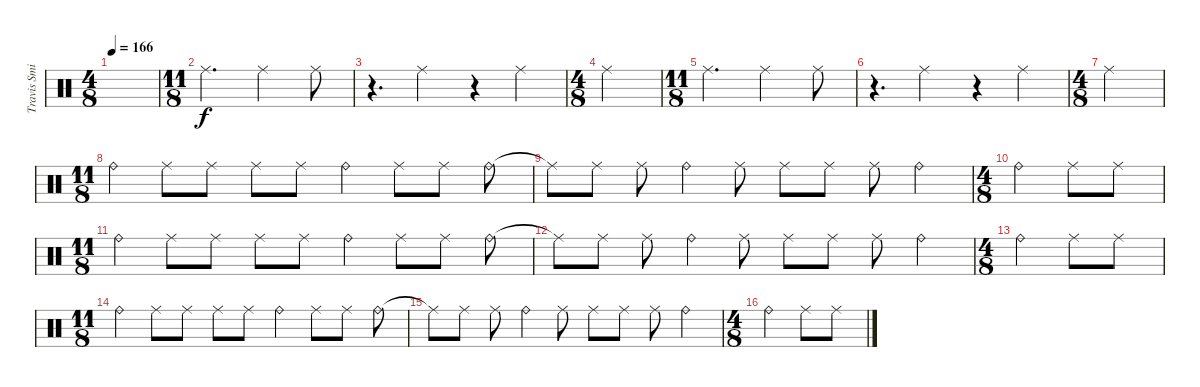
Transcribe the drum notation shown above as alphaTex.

\track ("Travis Smith" "Travis Smi") {instrument percussion}
\staff {score}
\articulation defaults
\ts (4 8)
\tempo 166
\clef neutral
\ks c
|
\ts (11 8)
"Ride (middle)".2{d} "Ride (middle)".2 "Ride (middle)".8 |
r.4{d} "Ride (middle)".2 r.4 "Ride (middle)".4 |
\ts (4 8)
"Ride (middle)".2 |
\ts (11 8)
"Ride (middle)".2{d} "Ride (middle)".2 "Ride (middle)".8 |
r.4{d} "Ride (middle)".2 r.4 "Ride (middle)".4 |
\ts (4 8)
"Ride (middle)".2 |
\ts (11 8)
"Ride (bell)".4 "Ride (middle)".8 "Ride (middle)".8 "Ride (middle)".8 "Ride (middle)".8 "Ride (bell)".4 "Ride (middle)".8 "Ride (middle)".8 "Ride (bell)".8 |
"Ride (middle)"{t}.8 "Ride (middle)".8 "Ride (middle)".8 "Ride (bell)".4 "Ride (middle)".8 "Ride (middle)".8 "Ride (middle)".8 "Ride (middle)".8 "Ride (bell)".4 |
\ts (4 8)
"Ride (bell)".4 "Ride (middle)".8 "Ride (middle)".8 |
\ts (11 8)
"Ride (bell)".4 "Ride (middle)".8 "Ride (middle)".8 "Ride (middle)".8 "Ride (middle)".8 "Ride (bell)".4 "Ride (middle)".8 "Ride (middle)".8 "Ride (bell)".8 |
"Ride (middle)"{t}.8 "Ride (middle)".8 "Ride (middle)".8 "Ride (bell)".4 "Ride (middle)".8 "Ride (middle)".8 "Ride (middle)".8 "Ride (middle)".8 "Ride (bell)".4 |
\ts (4 8)
"Ride (bell)".4 "Ride (middle)".8 "Ride (middle)".8 |
\ts (11 8)
"Ride (bell)".4 "Ride (middle)".8 "Ride (middle)".8 "Ride (middle)".8 "Ride (middle)".8 "Ride (bell)".4 "Ride (middle)".8 "Ride (middle)".8 "Ride (bell)".8 |
"Ride (middle)"{t}.8 "Ride (middle)".8 "Ride (middle)".8 "Ride (bell)".4 "Ride (middle)".8 "Ride (middle)".8 "Ride (middle)".8 "Ride (middle)".8 "Ride (bell)".4 |
\ts (4 8)
"Ride (bell)".4 "Ride (middle)".8 "Ride (middle)".8
